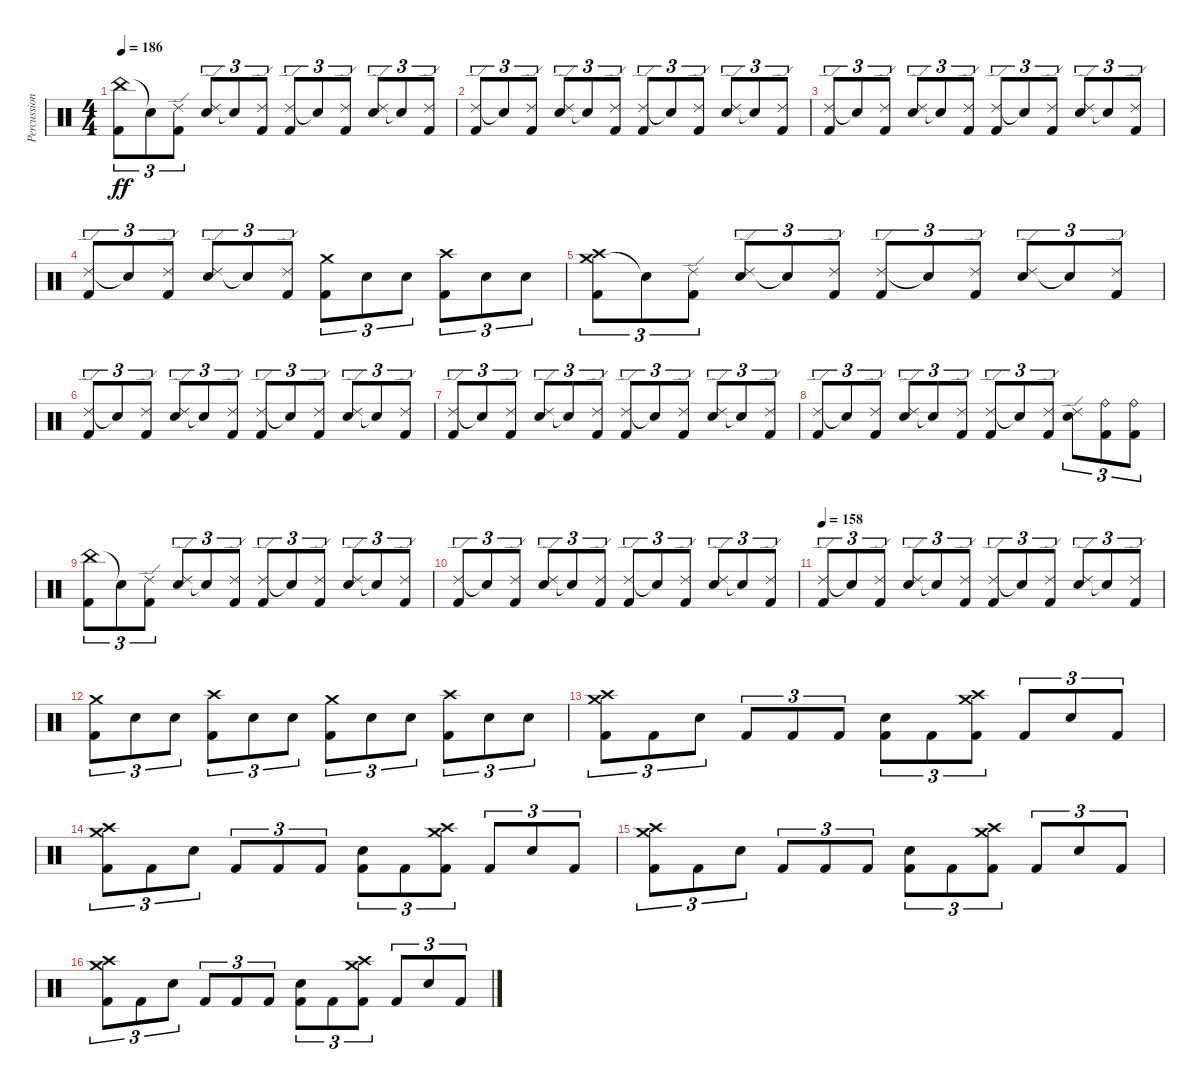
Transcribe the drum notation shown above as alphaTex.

\track ("Percussion" "Percussion") {instrument percussion}
\staff {score}
\articulation defaults
\ts (4 4)
\tempo 186
\clef neutral
\ks c
("China (hit)" "Kick (hit) 2").8{tu (3 2) dy ff} "Snare (hit)"{t}.8{tu (3 2)} ("Ride (edge) 2" "Kick (hit) 2").8{tu (3 2)} ("Ride (edge) 2" "Snare (hit) 2").8{tu (3 2)} "Snare (hit)"{t}.8{tu (3 2)} ("Ride (edge) 2" "Kick (hit) 2").8{tu (3 2)} ("Ride (edge) 2" "Kick (hit) 2").8{tu (3 2)} "Snare (hit)"{t}.8{tu (3 2)} ("Ride (edge) 2" "Kick (hit) 2").8{tu (3 2)} ("Ride (edge) 2" "Snare (hit) 2").8{tu (3 2)} "Snare (hit)"{t}.8{tu (3 2)} ("Ride (edge) 2" "Kick (hit) 2").8{tu (3 2)} |
("Ride (edge) 2" "Kick (hit) 2").8{tu (3 2)} "Snare (hit)"{t}.8{tu (3 2)} ("Ride (edge) 2" "Kick (hit) 2").8{tu (3 2)} ("Ride (edge) 2" "Snare (hit) 2").8{tu (3 2)} "Snare (hit)"{t}.8{tu (3 2)} ("Ride (edge) 2" "Kick (hit) 2").8{tu (3 2)} ("Ride (edge) 2" "Kick (hit) 2").8{tu (3 2)} "Snare (hit)"{t}.8{tu (3 2)} ("Ride (edge) 2" "Kick (hit) 2").8{tu (3 2)} ("Ride (edge) 2" "Snare (hit) 2").8{tu (3 2)} "Snare (hit)"{t}.8{tu (3 2)} ("Ride (edge) 2" "Kick (hit) 2").8{tu (3 2)} |
("Ride (edge) 2" "Kick (hit) 2").8{tu (3 2)} "Snare (hit)"{t}.8{tu (3 2)} ("Ride (edge) 2" "Kick (hit) 2").8{tu (3 2)} ("Ride (edge) 2" "Snare (hit) 2").8{tu (3 2)} "Snare (hit)"{t}.8{tu (3 2)} ("Ride (edge) 2" "Kick (hit) 2").8{tu (3 2)} ("Ride (edge) 2" "Kick (hit) 2").8{tu (3 2)} "Snare (hit)"{t}.8{tu (3 2)} ("Ride (edge) 2" "Kick (hit) 2").8{tu (3 2)} ("Ride (edge) 2" "Snare (hit) 2").8{tu (3 2)} "Snare (hit)"{t}.8{tu (3 2)} ("Ride (edge) 2" "Kick (hit) 2").8{tu (3 2)} |
("Ride (edge) 2" "Kick (hit) 2").8{tu (3 2)} "Snare (hit)"{t}.8{tu (3 2)} ("Ride (edge) 2" "Kick (hit) 2").8{tu (3 2)} ("Ride (edge) 2" "Snare (hit) 2").8{tu (3 2)} "Snare (hit)"{t}.8{tu (3 2)} ("Ride (edge) 2" "Kick (hit) 2").8{tu (3 2)} ("Crash medium (hit)" "Kick (hit) 2").8{tu (3 2)} "Snare (hit) 2".8{tu (3 2)} "Snare (hit) 2".8{tu (3 2)} ("Crash high (hit)" "Kick (hit) 2").8{tu (3 2)} "Snare (hit) 2".8{tu (3 2)} "Snare (hit) 2".8{tu (3 2)} |
("Crash medium (hit)" "Crash high (hit)" "Kick (hit) 2").8{tu (3 2)} "Snare (hit)"{t}.8{tu (3 2)} ("Ride (edge) 2" "Kick (hit) 2").8{tu (3 2)} ("Ride (edge) 2" "Snare (hit) 2").8{tu (3 2)} "Snare (hit)"{t}.8{tu (3 2)} ("Ride (edge) 2" "Kick (hit) 2").8{tu (3 2)} ("Ride (edge) 2" "Kick (hit) 2").8{tu (3 2)} "Snare (hit)"{t}.8{tu (3 2)} ("Ride (edge) 2" "Kick (hit) 2").8{tu (3 2)} ("Ride (edge) 2" "Snare (hit) 2").8{tu (3 2)} "Snare (hit)"{t}.8{tu (3 2)} ("Ride (edge) 2" "Kick (hit) 2").8{tu (3 2)} |
("Ride (edge) 2" "Kick (hit) 2").8{tu (3 2)} "Snare (hit)"{t}.8{tu (3 2)} ("Ride (edge) 2" "Kick (hit) 2").8{tu (3 2)} ("Ride (edge) 2" "Snare (hit) 2").8{tu (3 2)} "Snare (hit)"{t}.8{tu (3 2)} ("Ride (edge) 2" "Kick (hit) 2").8{tu (3 2)} ("Ride (edge) 2" "Kick (hit) 2").8{tu (3 2)} "Snare (hit)"{t}.8{tu (3 2)} ("Ride (edge) 2" "Kick (hit) 2").8{tu (3 2)} ("Ride (edge) 2" "Snare (hit) 2").8{tu (3 2)} "Snare (hit)"{t}.8{tu (3 2)} ("Ride (edge) 2" "Kick (hit) 2").8{tu (3 2)} |
("Ride (edge) 2" "Kick (hit) 2").8{tu (3 2)} "Snare (hit)"{t}.8{tu (3 2)} ("Ride (edge) 2" "Kick (hit) 2").8{tu (3 2)} ("Ride (edge) 2" "Snare (hit) 2").8{tu (3 2)} "Snare (hit)"{t}.8{tu (3 2)} ("Ride (edge) 2" "Kick (hit) 2").8{tu (3 2)} ("Ride (edge) 2" "Kick (hit) 2").8{tu (3 2)} "Snare (hit)"{t}.8{tu (3 2)} ("Ride (edge) 2" "Kick (hit) 2").8{tu (3 2)} ("Ride (edge) 2" "Snare (hit) 2").8{tu (3 2)} "Snare (hit)"{t}.8{tu (3 2)} ("Ride (edge) 2" "Kick (hit) 2").8{tu (3 2)} |
("Ride (edge) 2" "Kick (hit) 2").8{tu (3 2)} "Snare (hit)"{t}.8{tu (3 2)} ("Ride (edge) 2" "Kick (hit) 2").8{tu (3 2)} ("Ride (edge) 2" "Snare (hit) 2").8{tu (3 2)} "Snare (hit)"{t}.8{tu (3 2)} ("Ride (edge) 2" "Kick (hit) 2").8{tu (3 2)} ("Ride (edge) 2" "Kick (hit) 2").8{tu (3 2)} "Snare (hit)"{t}.8{tu (3 2)} ("Ride (edge) 2" "Kick (hit) 2").8{tu (3 2)} ("Ride (edge) 2" "Snare (hit) 2").8{tu (3 2)} ("Ride (bell)" "Kick (hit) 2").8{tu (3 2)} ("Ride (bell)" "Kick (hit) 2").8{tu (3 2)} |
("China (hit)" "Kick (hit) 2").8{tu (3 2)} "Snare (hit)"{t}.8{tu (3 2)} ("Ride (edge) 2" "Kick (hit) 2").8{tu (3 2)} ("Ride (edge) 2" "Snare (hit) 2").8{tu (3 2)} "Snare (hit)"{t}.8{tu (3 2)} ("Ride (edge) 2" "Kick (hit) 2").8{tu (3 2)} ("Ride (edge) 2" "Kick (hit) 2").8{tu (3 2)} "Snare (hit)"{t}.8{tu (3 2)} ("Ride (edge) 2" "Kick (hit) 2").8{tu (3 2)} ("Ride (edge) 2" "Snare (hit) 2").8{tu (3 2)} "Snare (hit)"{t}.8{tu (3 2)} ("Ride (edge) 2" "Kick (hit) 2").8{tu (3 2)} |
("Ride (edge) 2" "Kick (hit) 2").8{tu (3 2)} "Snare (hit)"{t}.8{tu (3 2)} ("Ride (edge) 2" "Kick (hit) 2").8{tu (3 2)} ("Ride (edge) 2" "Snare (hit) 2").8{tu (3 2)} "Snare (hit)"{t}.8{tu (3 2)} ("Ride (edge) 2" "Kick (hit) 2").8{tu (3 2)} ("Ride (edge) 2" "Kick (hit) 2").8{tu (3 2)} "Snare (hit)"{t}.8{tu (3 2)} ("Ride (edge) 2" "Kick (hit) 2").8{tu (3 2)} ("Ride (edge) 2" "Snare (hit) 2").8{tu (3 2)} "Snare (hit)"{t}.8{tu (3 2)} ("Ride (edge) 2" "Kick (hit) 2").8{tu (3 2)} |
\tempo 158
("Ride (edge) 2" "Kick (hit) 2").8{tu (3 2)} "Snare (hit)"{t}.8{tu (3 2)} ("Ride (edge) 2" "Kick (hit) 2").8{tu (3 2)} ("Ride (edge) 2" "Snare (hit) 2").8{tu (3 2)} "Snare (hit)"{t}.8{tu (3 2)} ("Ride (edge) 2" "Kick (hit) 2").8{tu (3 2)} ("Ride (edge) 2" "Kick (hit) 2").8{tu (3 2)} "Snare (hit)"{t}.8{tu (3 2)} ("Ride (edge) 2" "Kick (hit) 2").8{tu (3 2)} ("Ride (edge) 2" "Snare (hit) 2").8{tu (3 2)} "Snare (hit)"{t}.8{tu (3 2)} ("Ride (edge) 2" "Kick (hit) 2").8{tu (3 2)} |
("Crash medium (hit)" "Kick (hit) 2").8{tu (3 2)} "Snare (hit) 2".8{tu (3 2)} "Snare (hit) 2".8{tu (3 2)} ("Crash high (hit)" "Kick (hit) 2").8{tu (3 2)} "Snare (hit) 2".8{tu (3 2)} "Snare (hit) 2".8{tu (3 2)} ("Crash medium (hit)" "Kick (hit) 2").8{tu (3 2)} "Snare (hit) 2".8{tu (3 2)} "Snare (hit) 2".8{tu (3 2)} ("Crash high (hit)" "Kick (hit) 2").8{tu (3 2)} "Snare (hit) 2".8{tu (3 2)} "Snare (hit) 2".8{tu (3 2)} |
("Crash medium (hit)" "Crash high (hit)" "Kick (hit) 2").8{tu (3 2)} "Kick (hit) 2".8{tu (3 2)} "Snare (hit) 2".8{tu (3 2)} "Kick (hit) 2".8{tu (3 2)} "Kick (hit) 2".8{tu (3 2)} "Kick (hit) 2".8{tu (3 2)} ("Snare (hit) 2" "Kick (hit) 2").8{tu (3 2)} "Kick (hit) 2".8{tu (3 2)} ("Crash medium (hit)" "Crash high (hit)" "Kick (hit) 2").8{tu (3 2)} "Kick (hit) 2".8{tu (3 2)} "Snare (hit) 2".8{tu (3 2)} "Kick (hit) 2".8{tu (3 2)} |
("Crash medium (hit)" "Crash high (hit)" "Kick (hit) 2").8{tu (3 2)} "Kick (hit) 2".8{tu (3 2)} "Snare (hit) 2".8{tu (3 2)} "Kick (hit) 2".8{tu (3 2)} "Kick (hit) 2".8{tu (3 2)} "Kick (hit) 2".8{tu (3 2)} ("Snare (hit) 2" "Kick (hit) 2").8{tu (3 2)} "Kick (hit) 2".8{tu (3 2)} ("Crash medium (hit)" "Crash high (hit)" "Kick (hit) 2").8{tu (3 2)} "Kick (hit) 2".8{tu (3 2)} "Snare (hit) 2".8{tu (3 2)} "Kick (hit) 2".8{tu (3 2)} |
("Crash medium (hit)" "Crash high (hit)" "Kick (hit) 2").8{tu (3 2)} "Kick (hit) 2".8{tu (3 2)} "Snare (hit) 2".8{tu (3 2)} "Kick (hit) 2".8{tu (3 2)} "Kick (hit) 2".8{tu (3 2)} "Kick (hit) 2".8{tu (3 2)} ("Snare (hit) 2" "Kick (hit) 2").8{tu (3 2)} "Kick (hit) 2".8{tu (3 2)} ("Crash medium (hit)" "Crash high (hit)" "Kick (hit) 2").8{tu (3 2)} "Kick (hit) 2".8{tu (3 2)} "Snare (hit) 2".8{tu (3 2)} "Kick (hit) 2".8{tu (3 2)} |
("Crash medium (hit)" "Crash high (hit)" "Kick (hit) 2").8{tu (3 2)} "Kick (hit) 2".8{tu (3 2)} "Snare (hit) 2".8{tu (3 2)} "Kick (hit) 2".8{tu (3 2)} "Kick (hit) 2".8{tu (3 2)} "Kick (hit) 2".8{tu (3 2)} ("Snare (hit) 2" "Kick (hit) 2").8{tu (3 2)} "Kick (hit) 2".8{tu (3 2)} ("Crash medium (hit)" "Crash high (hit)" "Kick (hit) 2").8{tu (3 2)} "Kick (hit) 2".8{tu (3 2)} "Snare (hit) 2".8{tu (3 2)} "Kick (hit) 2".8{tu (3 2)}
